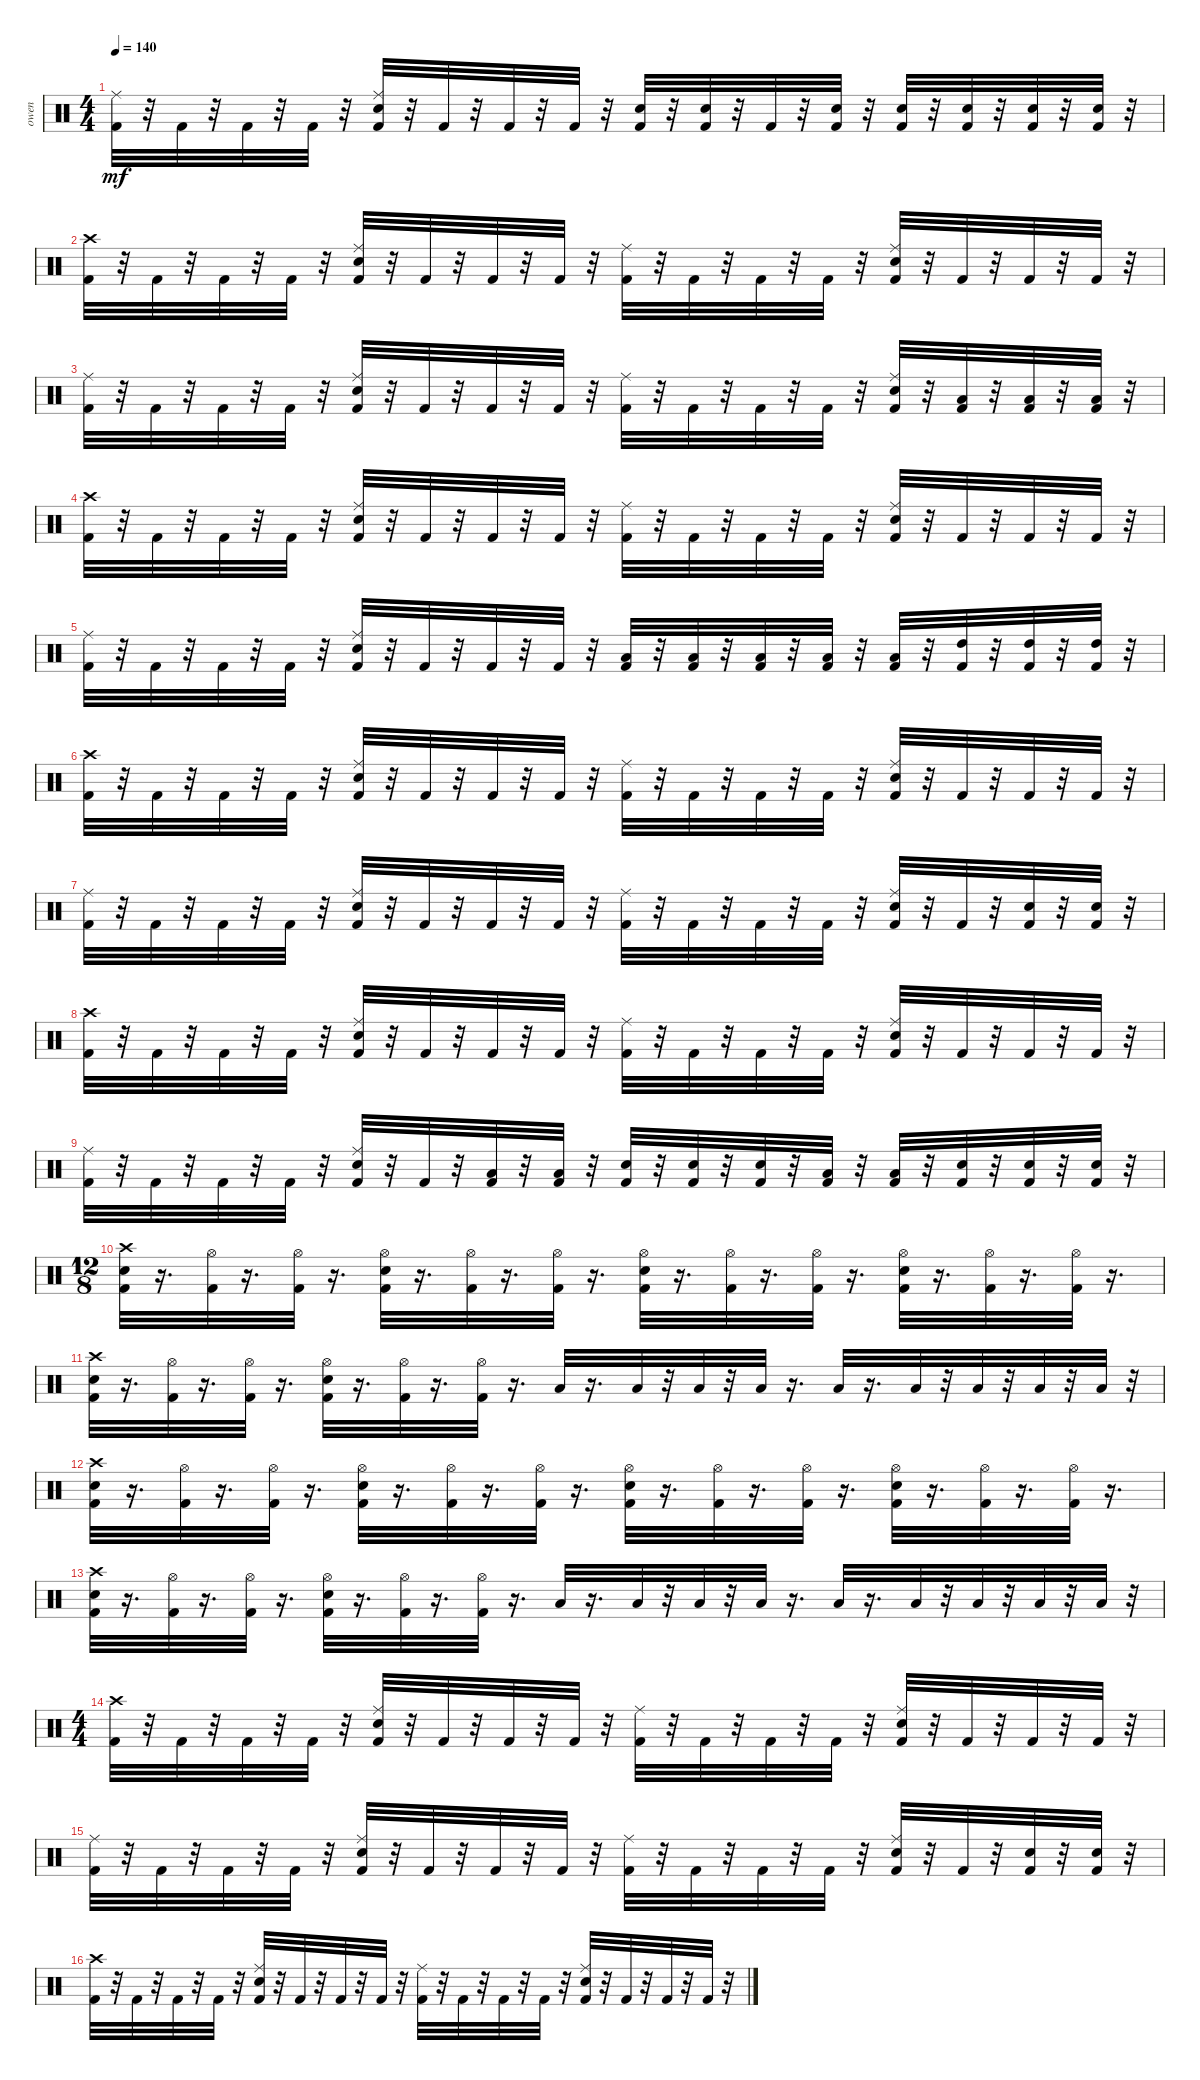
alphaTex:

\track ("owen" "owen") {instrument percussion}
\staff {score}
\articulation defaults
\ts (4 4)
\tempo 140
\clef neutral
\ks c
("Kick (hit) 2" "Ride (middle)").32{dy mf} r.32 "Kick (hit) 2".32 r.32 "Kick (hit) 2".32 r.32 "Kick (hit) 2".32 r.32 ("Kick (hit) 2" "Snare (hit) 2" "Ride (middle)").32 r.32 "Kick (hit) 2".32 r.32 "Kick (hit) 2".32 r.32 "Kick (hit) 2".32 r.32 ("Kick (hit) 2" "Snare (hit) 2").32 r.32 ("Kick (hit) 2" "Snare (hit) 2").32 r.32 "Kick (hit) 2".32 r.32 ("Kick (hit) 2" "Snare (hit) 2").32 r.32 ("Kick (hit) 2" "Snare (hit) 2").32 r.32 ("Kick (hit) 2" "Snare (hit) 2").32 r.32 ("Kick (hit) 2" "Snare (hit) 2").32 r.32 ("Kick (hit) 2" "Snare (hit) 2").32 r.32 |
("Crash high (hit)" "Kick (hit) 2").32 r.32 "Kick (hit) 2".32 r.32 "Kick (hit) 2".32 r.32 "Kick (hit) 2".32 r.32 ("Kick (hit) 2" "Snare (hit) 2" "Ride (middle)").32 r.32 "Kick (hit) 2".32 r.32 "Kick (hit) 2".32 r.32 "Kick (hit) 2".32 r.32 ("Kick (hit) 2" "Ride (middle)").32 r.32 "Kick (hit) 2".32 r.32 "Kick (hit) 2".32 r.32 "Kick (hit) 2".32 r.32 ("Kick (hit) 2" "Snare (hit) 2" "Ride (middle)").32 r.32 "Kick (hit) 2".32 r.32 "Kick (hit) 2".32 r.32 "Kick (hit) 2".32 r.32 |
("Kick (hit) 2" "Ride (middle)").32 r.32 "Kick (hit) 2".32 r.32 "Kick (hit) 2".32 r.32 "Kick (hit) 2".32 r.32 ("Kick (hit) 2" "Snare (hit) 2" "Ride (middle)").32 r.32 "Kick (hit) 2".32 r.32 "Kick (hit) 2".32 r.32 "Kick (hit) 2".32 r.32 ("Kick (hit) 2" "Ride (middle)").32 r.32 "Kick (hit) 2".32 r.32 "Kick (hit) 2".32 r.32 "Kick (hit) 2".32 r.32 ("Kick (hit) 2" "Snare (hit) 2" "Ride (middle)").32 r.32 ("Kick (hit) 2" "Low Tom (hit)").32 r.32 ("Kick (hit) 2" "Low Tom (hit)").32 r.32 ("Kick (hit) 2" "Low Tom (hit)").32 r.32 |
("Kick (hit) 2" "Crash high (hit)").32 r.32 "Kick (hit) 2".32 r.32 "Kick (hit) 2".32 r.32 "Kick (hit) 2".32 r.32 ("Kick (hit) 2" "Snare (hit) 2" "Ride (middle)").32 r.32 "Kick (hit) 2".32 r.32 "Kick (hit) 2".32 r.32 "Kick (hit) 2".32 r.32 ("Kick (hit) 2" "Ride (middle)").32 r.32 "Kick (hit) 2".32 r.32 "Kick (hit) 2".32 r.32 "Kick (hit) 2".32 r.32 ("Kick (hit) 2" "Snare (hit) 2" "Ride (middle)").32 r.32 "Kick (hit) 2".32 r.32 "Kick (hit) 2".32 r.32 "Kick (hit) 2".32 r.32 |
("Kick (hit) 2" "Ride (middle)").32 r.32 "Kick (hit) 2".32 r.32 "Kick (hit) 2".32 r.32 "Kick (hit) 2".32 r.32 ("Kick (hit) 2" "Snare (hit) 2" "Ride (middle)").32 r.32 "Kick (hit) 2".32 r.32 "Kick (hit) 2".32 r.32 "Kick (hit) 2".32 r.32 ("Kick (hit) 2" "Low Tom (hit)").32 r.32 ("Kick (hit) 2" "Low Tom (hit)").32 r.32 ("Kick (hit) 2" "Low Tom (hit)").32 r.32 ("Kick (hit) 2" "Low Tom (hit)").32 r.32 ("Kick (hit) 2" "Low Tom (hit)").32 r.32 ("Kick (hit) 2" "High Tom (hit)").32 r.32 ("Kick (hit) 2" "High Tom (hit)").32 r.32 ("Kick (hit) 2" "High Tom (hit)").32 r.32 |
("Crash high (hit)" "Kick (hit) 2").32 r.32 "Kick (hit) 2".32 r.32 "Kick (hit) 2".32 r.32 "Kick (hit) 2".32 r.32 ("Kick (hit) 2" "Snare (hit) 2" "Ride (middle)").32 r.32 "Kick (hit) 2".32 r.32 "Kick (hit) 2".32 r.32 "Kick (hit) 2".32 r.32 ("Kick (hit) 2" "Ride (middle)").32 r.32 "Kick (hit) 2".32 r.32 "Kick (hit) 2".32 r.32 "Kick (hit) 2".32 r.32 ("Kick (hit) 2" "Snare (hit) 2" "Ride (middle)").32 r.32 "Kick (hit) 2".32 r.32 "Kick (hit) 2".32 r.32 "Kick (hit) 2".32 r.32 |
("Kick (hit) 2" "Ride (middle)").32 r.32 "Kick (hit) 2".32 r.32 "Kick (hit) 2".32 r.32 "Kick (hit) 2".32 r.32 ("Kick (hit) 2" "Snare (hit) 2" "Ride (middle)").32 r.32 "Kick (hit) 2".32 r.32 "Kick (hit) 2".32 r.32 "Kick (hit) 2".32 r.32 ("Kick (hit) 2" "Ride (middle)").32 r.32 "Kick (hit) 2".32 r.32 "Kick (hit) 2".32 r.32 "Kick (hit) 2".32 r.32 ("Kick (hit) 2" "Snare (hit) 2" "Ride (middle)").32 r.32 "Kick (hit) 2".32 r.32 ("Kick (hit) 2" "Snare (hit) 2").32 r.32 ("Kick (hit) 2" "Snare (hit) 2").32 r.32 |
("Kick (hit) 2" "Crash high (hit)").32 r.32 "Kick (hit) 2".32 r.32 "Kick (hit) 2".32 r.32 "Kick (hit) 2".32 r.32 ("Kick (hit) 2" "Snare (hit) 2" "Ride (middle)").32 r.32 "Kick (hit) 2".32 r.32 "Kick (hit) 2".32 r.32 "Kick (hit) 2".32 r.32 ("Kick (hit) 2" "Ride (middle)").32 r.32 "Kick (hit) 2".32 r.32 "Kick (hit) 2".32 r.32 "Kick (hit) 2".32 r.32 ("Kick (hit) 2" "Snare (hit) 2" "Ride (middle)").32 r.32 "Kick (hit) 2".32 r.32 "Kick (hit) 2".32 r.32 "Kick (hit) 2".32 r.32 |
("Kick (hit) 2" "Ride (middle)").32 r.32 "Kick (hit) 2".32 r.32 "Kick (hit) 2".32 r.32 "Kick (hit) 2".32 r.32 ("Kick (hit) 2" "Snare (hit) 2" "Ride (middle)").32 r.32 "Kick (hit) 2".32 r.32 ("Kick (hit) 2" "Low Floor Tom (hit)").32 r.32 ("Kick (hit) 2" "Low Floor Tom (hit)").32 r.32 ("Kick (hit) 2" "Snare (hit) 2").32 r.32 ("Kick (hit) 2" "Snare (hit) 2").32 r.32 ("Kick (hit) 2" "Snare (hit) 2").32 r.32 ("Kick (hit) 2" "Low Tom (hit)").32 r.32 ("Kick (hit) 2" "Low Tom (hit)").32 r.32 ("Kick (hit) 2" "Snare (hit) 2").32 r.32 ("Kick (hit) 2" "Snare (hit) 2").32 r.32 ("Kick (hit) 2" "Snare (hit) 2").32 r.32 |
\ts (12 8)
("Kick (hit) 2" "Snare (hit) 2" "Crash high (hit)").32 r.16{d} ("Kick (hit) 2" "Hi-Hat (open)").32 r.16{d} ("Kick (hit) 2" "Hi-Hat (open)").32 r.16{d} ("Kick (hit) 2" "Snare (hit) 2" "Hi-Hat (open)").32 r.16{d} ("Kick (hit) 2" "Hi-Hat (open)").32 r.16{d} ("Kick (hit) 2" "Hi-Hat (open)").32 r.16{d} ("Kick (hit) 2" "Snare (hit) 2" "Hi-Hat (open)").32 r.16{d} ("Kick (hit) 2" "Hi-Hat (open)").32 r.16{d} ("Kick (hit) 2" "Hi-Hat (open)").32 r.16{d} ("Kick (hit) 2" "Snare (hit) 2" "Hi-Hat (open)").32 r.16{d} ("Kick (hit) 2" "Hi-Hat (open)").32 r.16{d} ("Kick (hit) 2" "Hi-Hat (open)").32 r.16{d} |
("Kick (hit) 2" "Snare (hit) 2" "Crash high (hit)").32 r.16{d} ("Kick (hit) 2" "Hi-Hat (open)").32 r.16{d} ("Kick (hit) 2" "Hi-Hat (open)").32 r.16{d} ("Kick (hit) 2" "Snare (hit) 2" "Hi-Hat (open)").32 r.16{d} ("Kick (hit) 2" "Hi-Hat (open)").32 r.16{d} ("Kick (hit) 2" "Hi-Hat (open)").32 r.16{d} "Low Tom (hit)".32 r.16{d} "Low Tom (hit)".32 r.32 "Low Tom (hit)".32 r.32 "Low Tom (hit)".32 r.16{d} "Low Floor Tom (hit)".32 r.16{d} "Low Floor Tom (hit)".32 r.32 "Low Floor Tom (hit)".32 r.32 "Low Floor Tom (hit)".32 r.32 "Low Floor Tom (hit)".32 r.32 |
("Kick (hit) 2" "Snare (hit) 2" "Crash high (hit)").32 r.16{d} ("Kick (hit) 2" "Hi-Hat (open)").32 r.16{d} ("Kick (hit) 2" "Hi-Hat (open)").32 r.16{d} ("Kick (hit) 2" "Snare (hit) 2" "Hi-Hat (open)").32 r.16{d} ("Kick (hit) 2" "Hi-Hat (open)").32 r.16{d} ("Kick (hit) 2" "Hi-Hat (open)").32 r.16{d} ("Kick (hit) 2" "Snare (hit) 2" "Hi-Hat (open)").32 r.16{d} ("Kick (hit) 2" "Hi-Hat (open)").32 r.16{d} ("Kick (hit) 2" "Hi-Hat (open)").32 r.16{d} ("Kick (hit) 2" "Snare (hit) 2" "Hi-Hat (open)").32 r.16{d} ("Kick (hit) 2" "Hi-Hat (open)").32 r.16{d} ("Kick (hit) 2" "Hi-Hat (open)").32 r.16{d} |
("Kick (hit) 2" "Snare (hit) 2" "Crash high (hit)").32 r.16{d} ("Kick (hit) 2" "Hi-Hat (open)").32 r.16{d} ("Kick (hit) 2" "Hi-Hat (open)").32 r.16{d} ("Kick (hit) 2" "Snare (hit) 2" "Hi-Hat (open)").32 r.16{d} ("Kick (hit) 2" "Hi-Hat (open)").32 r.16{d} ("Kick (hit) 2" "Hi-Hat (open)").32 r.16{d} "Low Tom (hit)".32 r.16{d} "Low Tom (hit)".32 r.32 "Low Tom (hit)".32 r.32 "Low Tom (hit)".32 r.16{d} "Low Floor Tom (hit)".32 r.16{d} "Low Floor Tom (hit)".32 r.32 "Low Floor Tom (hit)".32 r.32 "Low Floor Tom (hit)".32 r.32 "Low Floor Tom (hit)".32 r.32 |
\ts (4 4)
("Crash high (hit)" "Kick (hit) 2").32 r.32 "Kick (hit) 2".32 r.32 "Kick (hit) 2".32 r.32 "Kick (hit) 2".32 r.32 ("Kick (hit) 2" "Snare (hit) 2" "Ride (middle)").32 r.32 "Kick (hit) 2".32 r.32 "Kick (hit) 2".32 r.32 "Kick (hit) 2".32 r.32 ("Kick (hit) 2" "Ride (middle)").32 r.32 "Kick (hit) 2".32 r.32 "Kick (hit) 2".32 r.32 "Kick (hit) 2".32 r.32 ("Kick (hit) 2" "Snare (hit) 2" "Ride (middle)").32 r.32 "Kick (hit) 2".32 r.32 "Kick (hit) 2".32 r.32 "Kick (hit) 2".32 r.32 |
("Kick (hit) 2" "Ride (middle)").32 r.32 "Kick (hit) 2".32 r.32 "Kick (hit) 2".32 r.32 "Kick (hit) 2".32 r.32 ("Kick (hit) 2" "Snare (hit) 2" "Ride (middle)").32 r.32 "Kick (hit) 2".32 r.32 "Kick (hit) 2".32 r.32 "Kick (hit) 2".32 r.32 ("Kick (hit) 2" "Ride (middle)").32 r.32 "Kick (hit) 2".32 r.32 "Kick (hit) 2".32 r.32 "Kick (hit) 2".32 r.32 ("Kick (hit) 2" "Snare (hit) 2" "Ride (middle)").32 r.32 "Kick (hit) 2".32 r.32 ("Kick (hit) 2" "Snare (hit) 2").32 r.32 ("Kick (hit) 2" "Snare (hit) 2").32 r.32 |
("Kick (hit) 2" "Crash high (hit)").32 r.32 "Kick (hit) 2".32 r.32 "Kick (hit) 2".32 r.32 "Kick (hit) 2".32 r.32 ("Kick (hit) 2" "Snare (hit) 2" "Ride (middle)").32 r.32 "Kick (hit) 2".32 r.32 "Kick (hit) 2".32 r.32 "Kick (hit) 2".32 r.32 ("Kick (hit) 2" "Ride (middle)").32 r.32 "Kick (hit) 2".32 r.32 "Kick (hit) 2".32 r.32 "Kick (hit) 2".32 r.32 ("Kick (hit) 2" "Snare (hit) 2" "Ride (middle)").32 r.32 "Kick (hit) 2".32 r.32 "Kick (hit) 2".32 r.32 "Kick (hit) 2".32 r.32
